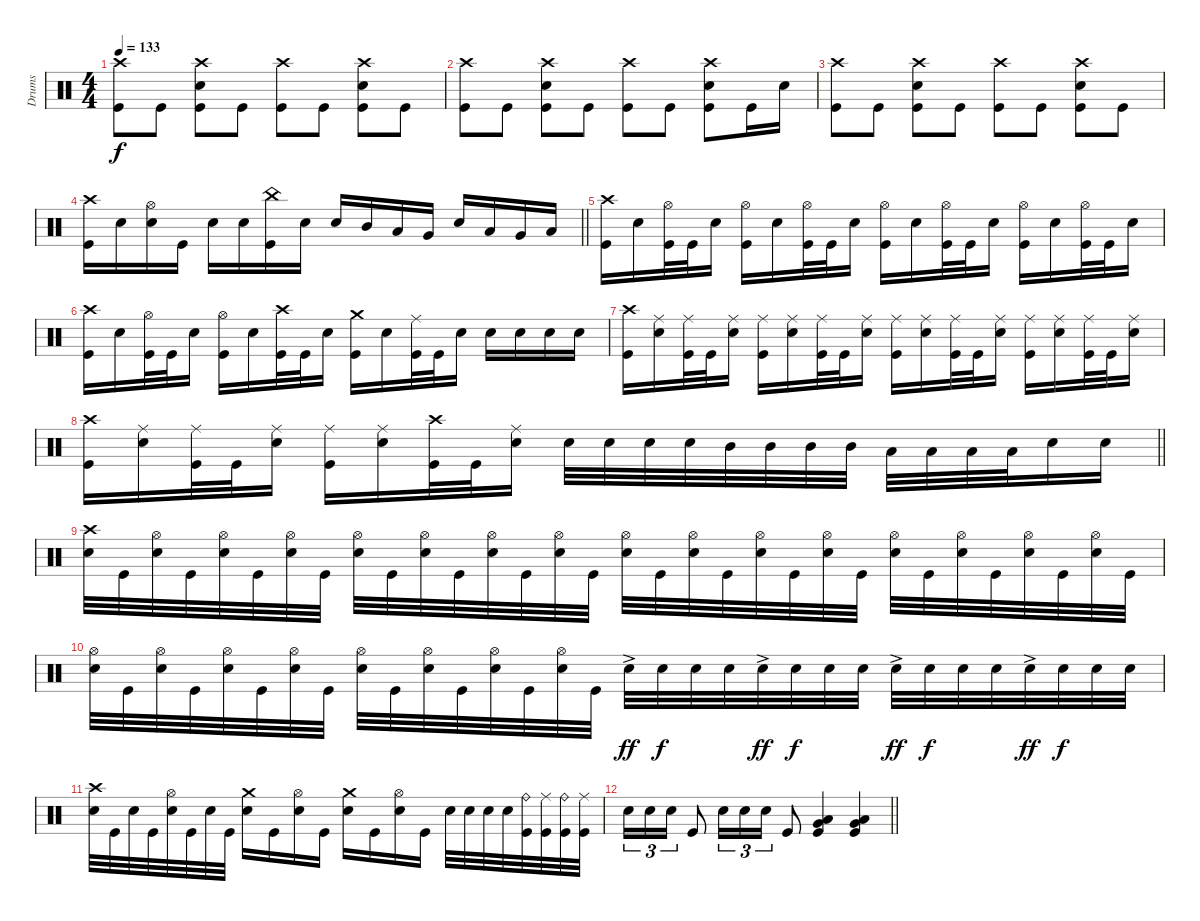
\track ("Drums" "Drums") {instrument percussion}
\staff
\articulation defaults
\ts (4 4)
\tempo 133
\clef neutral
\ks c
("Crash high (hit)" "Kick (hit)").8{dy f} "Kick (hit)".8 ("Crash high (hit)" "Electric Snare (hit)" "Kick (hit)").8 "Kick (hit)".8 ("Crash high (hit)" "Kick (hit)").8 "Kick (hit)".8 ("Crash high (hit)" "Electric Snare (hit)" "Kick (hit)").8 "Kick (hit)".8 |
("Crash high (hit)" "Kick (hit)").8 "Kick (hit)".8 ("Crash high (hit)" "Electric Snare (hit)" "Kick (hit)").8 "Kick (hit)".8 ("Crash high (hit)" "Kick (hit)").8 "Kick (hit)".8 ("Crash high (hit)" "Electric Snare (hit)" "Kick (hit)").8 "Kick (hit)".16 "Electric Snare (hit)".16 |
("Crash high (hit)" "Kick (hit)").8 "Kick (hit)".8 ("Crash high (hit)" "Electric Snare (hit)" "Kick (hit)").8 "Kick (hit)".8 ("Crash high (hit)" "Kick (hit)").8 "Kick (hit)".8 ("Crash high (hit)" "Electric Snare (hit)" "Kick (hit)").8 "Kick (hit)".8 |
\barLineRight lightlight
("Crash high (hit)" "Kick (hit)").16 "Electric Snare (hit)".16 ("Hi-Hat (open)" "Electric Snare (hit)").16 "Kick (hit)".16 "Electric Snare (hit)".16 "Electric Snare (hit)".16 ("China (hit)" "Kick (hit)").16 "Electric Snare (hit)".16 "Electric Snare (hit)".16 "Mid Tom (hit)".16 "Low Tom (hit)".16 "Very Low Tom (hit)".16 "Electric Snare (hit)".16 "Low Tom (hit)".16 "Very Low Tom (hit)".16 "Low Floor Tom (hit)".16 |
("Crash high (hit)" "Kick (hit)").16 "Electric Snare (hit)".16 ("Hi-Hat (open)" "Kick (hit)").32 "Kick (hit)".32 "Electric Snare (hit)".16 ("Hi-Hat (open)" "Kick (hit)").16 "Electric Snare (hit)".16 ("Hi-Hat (open)" "Kick (hit)").32 "Kick (hit)".32 "Electric Snare (hit)".16 ("Hi-Hat (open)" "Kick (hit)").16 "Electric Snare (hit)".16 ("Hi-Hat (open)" "Kick (hit)").32 "Kick (hit)".32 "Electric Snare (hit)".16 ("Hi-Hat (open)" "Kick (hit)").16 "Electric Snare (hit)".16 ("Hi-Hat (open)" "Kick (hit)").32 "Kick (hit)".32 "Electric Snare (hit)".16 |
("Crash high (hit)" "Kick (hit)").16 "Electric Snare (hit)".16 ("Hi-Hat (open)" "Kick (hit)").32 "Kick (hit)".32 "Electric Snare (hit)".16 ("Hi-Hat (open)" "Kick (hit)").16 "Electric Snare (hit)".16 ("Crash high (hit)" "Kick (hit)").32 "Kick (hit)".32 "Electric Snare (hit)".16 ("Crash medium (hit)" "Kick (hit)").16 "Electric Snare (hit)".16 ("Ride (middle)" "Kick (hit)").32 "Kick (hit)".32 "Electric Snare (hit)".16 "Electric Snare (hit)".16 "Electric Snare (hit)".16 "Electric Snare (hit)".16 "Electric Snare (hit)".16 |
("Crash high (hit)" "Kick (hit)").16 ("Ride (middle)" "Electric Snare (hit)").16 ("Ride (middle)" "Kick (hit)").32 "Kick (hit)".32 ("Ride (middle)" "Electric Snare (hit)").16 ("Ride (middle)" "Kick (hit)").16 ("Ride (middle)" "Electric Snare (hit)").16 ("Ride (middle)" "Kick (hit)").32 "Kick (hit)".32 ("Ride (middle)" "Electric Snare (hit)").16 ("Ride (middle)" "Kick (hit)").16 ("Ride (middle)" "Electric Snare (hit)").16 ("Ride (middle)" "Kick (hit)").32 "Kick (hit)".32 ("Ride (middle)" "Electric Snare (hit)").16 ("Ride (middle)" "Kick (hit)").16 ("Ride (middle)" "Electric Snare (hit)").16 ("Ride (middle)" "Kick (hit)").32 "Kick (hit)".32 ("Ride (middle)" "Electric Snare (hit)").16 |
\barLineRight lightlight
("Crash high (hit)" "Kick (hit)").16 ("Ride (middle)" "Electric Snare (hit)").16 ("Ride (middle)" "Kick (hit)").32 "Kick (hit)".32 ("Ride (middle)" "Electric Snare (hit)").16 ("Ride (middle)" "Kick (hit)").16 ("Ride (middle)" "Electric Snare (hit)").16 ("Crash high (hit)" "Kick (hit)").32 "Kick (hit)".32 ("Ride (middle)" "Electric Snare (hit)").16 "Electric Snare (hit)".32 "Electric Snare (hit)".32 "Electric Snare (hit)".32 "Electric Snare (hit)".32 "Mid Tom (hit)".32 "Mid Tom (hit)".32 "Mid Tom (hit)".32 "Mid Tom (hit)".32 "Low Tom (hit)".32 "Low Tom (hit)".32 "Low Tom (hit)".32 "Low Tom (hit)".32 "Electric Snare (hit)".16 "Electric Snare (hit)".16 |
("Crash high (hit)" "Electric Snare (hit)").32 "Kick (hit)".32 ("Hi-Hat (open)" "Electric Snare (hit)").32 "Kick (hit)".32 ("Hi-Hat (open)" "Electric Snare (hit)").32 "Kick (hit)".32 ("Hi-Hat (open)" "Electric Snare (hit)").32 "Kick (hit)".32 ("Hi-Hat (open)" "Electric Snare (hit)").32 "Kick (hit)".32 ("Hi-Hat (open)" "Electric Snare (hit)").32 "Kick (hit)".32 ("Hi-Hat (open)" "Electric Snare (hit)").32 "Kick (hit)".32 ("Hi-Hat (open)" "Electric Snare (hit)").32 "Kick (hit)".32 ("Hi-Hat (open)" "Electric Snare (hit)").32 "Kick (hit)".32 ("Hi-Hat (open)" "Electric Snare (hit)").32 "Kick (hit)".32 ("Hi-Hat (open)" "Electric Snare (hit)").32 "Kick (hit)".32 ("Hi-Hat (open)" "Electric Snare (hit)").32 "Kick (hit)".32 ("Hi-Hat (open)" "Electric Snare (hit)").32 "Kick (hit)".32 ("Hi-Hat (open)" "Electric Snare (hit)").32 "Kick (hit)".32 ("Hi-Hat (open)" "Electric Snare (hit)").32 "Kick (hit)".32 ("Hi-Hat (open)" "Electric Snare (hit)").32 "Kick (hit)".32 |
("Hi-Hat (open)" "Electric Snare (hit)").32 "Kick (hit)".32 ("Hi-Hat (open)" "Electric Snare (hit)").32 "Kick (hit)".32 ("Hi-Hat (open)" "Electric Snare (hit)").32 "Kick (hit)".32 ("Hi-Hat (open)" "Electric Snare (hit)").32 "Kick (hit)".32 ("Hi-Hat (open)" "Electric Snare (hit)").32 "Kick (hit)".32 ("Hi-Hat (open)" "Electric Snare (hit)").32 "Kick (hit)".32 ("Hi-Hat (open)" "Electric Snare (hit)").32 "Kick (hit)".32 ("Hi-Hat (open)" "Electric Snare (hit)").32 "Kick (hit)".32 "Electric Snare (hit)"{ac}.32{dy ff} "Electric Snare (hit)".32{dy f} "Electric Snare (hit)".32 "Electric Snare (hit)".32 "Electric Snare (hit)"{ac}.32{dy ff} "Electric Snare (hit)".32{dy f} "Electric Snare (hit)".32 "Electric Snare (hit)".32 "Electric Snare (hit)"{ac}.32{dy ff} "Electric Snare (hit)".32{dy f} "Electric Snare (hit)".32 "Electric Snare (hit)".32 "Electric Snare (hit)"{ac}.32{dy ff} "Electric Snare (hit)".32{dy f} "Electric Snare (hit)".32 "Electric Snare (hit)".32 |
("Crash high (hit)" "Electric Snare (hit)").32 "Kick (hit)".32 "Electric Snare (hit)".32 "Kick (hit)".32 ("Hi-Hat (open)" "Electric Snare (hit)").32 "Kick (hit)".32 "Electric Snare (hit)".32 "Kick (hit)".32 ("Crash medium (hit)" "Electric Snare (hit)").16 "Kick (hit)".16 ("Hi-Hat (open)" "Electric Snare (hit)").16 "Kick (hit)".16 ("Crash medium (hit)" "Electric Snare (hit)").16 "Kick (hit)".16 ("Hi-Hat (open)" "Electric Snare (hit)").16 "Kick (hit)".16 "Electric Snare (hit)".32 "Electric Snare (hit)".32 "Electric Snare (hit)".32 "Electric Snare (hit)".32 ("Ride (bell)" "Kick (hit)").32 ("Ride (middle)" "Kick (hit)").32 ("Ride (bell)" "Kick (hit)").32 ("Ride (middle)" "Kick (hit)").32 |
\barLineRight lightlight "Electric Snare (hit)".16{tu (3 2)} "Electric Snare (hit)".16{tu (3 2)} "Electric Snare (hit)".16{tu (3 2)} "Kick (hit)".8 "Electric Snare (hit)".16{tu (3 2)} "Electric Snare (hit)".16{tu (3 2)} "Electric Snare (hit)".16{tu (3 2)} "Kick (hit)".8
("Very Low Tom (hit)" "Low Floor Tom (hit)" "Kick (hit)").4 ("Very Low Tom (hit)" "Low Floor Tom (hit)" "Kick (hit)").4
